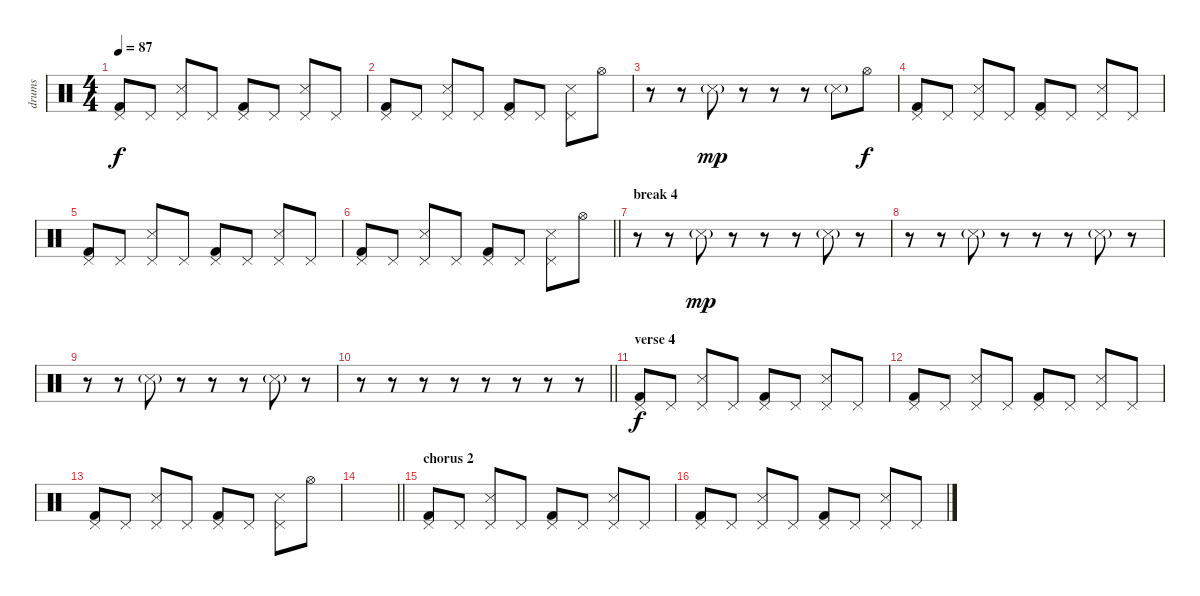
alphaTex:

\track ("drums" "drums") {instrument percussion}
\staff {score}
\articulation defaults
\ts (4 4)
\tempo 87
\clef neutral
\ks c
("Kick (hit) 2" "Pedal Hi-Hat (hit)").8{dy f} "Pedal Hi-Hat (hit)".8 ("Snare (side stick) 3" "Pedal Hi-Hat (hit)").8 "Pedal Hi-Hat (hit)".8 ("Kick (hit) 2" "Pedal Hi-Hat (hit)").8 "Pedal Hi-Hat (hit)".8 ("Snare (side stick) 3" "Pedal Hi-Hat (hit)").8 "Pedal Hi-Hat (hit)".8 |
("Kick (hit) 2" "Pedal Hi-Hat (hit)").8 "Pedal Hi-Hat (hit)".8 ("Snare (side stick) 3" "Pedal Hi-Hat (hit)").8 "Pedal Hi-Hat (hit)".8 ("Kick (hit) 2" "Pedal Hi-Hat (hit)").8 "Pedal Hi-Hat (hit)".8 ("Snare (side stick) 3" "Pedal Hi-Hat (hit)").8 "Hi-Hat (open)".8 |
r.8 r.8 "Snare (side stick) 3"{g}.8{dy mp} r.8 r.8 r.8 "Snare (side stick) 3"{g}.8 "Hi-Hat (open)".8{dy f} |
("Kick (hit) 2" "Pedal Hi-Hat (hit)").8 "Pedal Hi-Hat (hit)".8 ("Snare (side stick) 3" "Pedal Hi-Hat (hit)").8 "Pedal Hi-Hat (hit)".8 ("Kick (hit) 2" "Pedal Hi-Hat (hit)").8 "Pedal Hi-Hat (hit)".8 ("Snare (side stick) 3" "Pedal Hi-Hat (hit)").8 "Pedal Hi-Hat (hit)".8 |
("Kick (hit) 2" "Pedal Hi-Hat (hit)").8 "Pedal Hi-Hat (hit)".8 ("Snare (side stick) 3" "Pedal Hi-Hat (hit)").8 "Pedal Hi-Hat (hit)".8 ("Kick (hit) 2" "Pedal Hi-Hat (hit)").8 "Pedal Hi-Hat (hit)".8 ("Snare (side stick) 3" "Pedal Hi-Hat (hit)").8 "Pedal Hi-Hat (hit)".8 |
\barLineRight lightlight
("Kick (hit) 2" "Pedal Hi-Hat (hit)").8 "Pedal Hi-Hat (hit)".8 ("Snare (side stick) 3" "Pedal Hi-Hat (hit)").8 "Pedal Hi-Hat (hit)".8 ("Kick (hit) 2" "Pedal Hi-Hat (hit)").8 "Pedal Hi-Hat (hit)".8 ("Snare (side stick) 3" "Pedal Hi-Hat (hit)").8 "Hi-Hat (open)".8 |
\section ("" "break 4")
r.8{volume 6} r.8 "Snare (side stick) 3"{g}.8{dy mp} r.8 r.8 r.8 "Snare (side stick) 3"{g}.8 r.8 |
r.8 r.8 "Snare (side stick) 3"{g}.8 r.8 r.8 r.8 "Snare (side stick) 3"{g}.8 r.8 |
r.8 r.8 "Snare (side stick) 3"{g}.8 r.8 r.8 r.8 "Snare (side stick) 3"{g}.8 r.8 |
\barLineRight lightlight
r.8 r.8 r.8 r.8 r.8 r.8 r.8{volume 16} r.8 |
\section ("" "verse 4")
("Kick (hit) 2" "Pedal Hi-Hat (hit)").8{dy f} "Pedal Hi-Hat (hit)".8 ("Snare (side stick) 3" "Pedal Hi-Hat (hit)").8 "Pedal Hi-Hat (hit)".8 ("Kick (hit) 2" "Pedal Hi-Hat (hit)").8 "Pedal Hi-Hat (hit)".8 ("Snare (side stick) 3" "Pedal Hi-Hat (hit)").8 "Pedal Hi-Hat (hit)".8 |
("Kick (hit) 2" "Pedal Hi-Hat (hit)").8 "Pedal Hi-Hat (hit)".8 ("Snare (side stick) 3" "Pedal Hi-Hat (hit)").8 "Pedal Hi-Hat (hit)".8 ("Kick (hit) 2" "Pedal Hi-Hat (hit)").8 "Pedal Hi-Hat (hit)".8 ("Snare (side stick) 3" "Pedal Hi-Hat (hit)").8 "Pedal Hi-Hat (hit)".8 |
("Kick (hit) 2" "Pedal Hi-Hat (hit)").8 "Pedal Hi-Hat (hit)".8 ("Snare (side stick) 3" "Pedal Hi-Hat (hit)").8 "Pedal Hi-Hat (hit)".8 ("Kick (hit) 2" "Pedal Hi-Hat (hit)").8 "Pedal Hi-Hat (hit)".8 ("Snare (side stick) 3" "Pedal Hi-Hat (hit)").8 "Hi-Hat (open)".8 |
\barLineRight lightlight
|
\section ("" "chorus 2")
("Kick (hit) 2" "Pedal Hi-Hat (hit)").8 "Pedal Hi-Hat (hit)".8 ("Snare (side stick) 3" "Pedal Hi-Hat (hit)").8 "Pedal Hi-Hat (hit)".8 ("Kick (hit) 2" "Pedal Hi-Hat (hit)").8 "Pedal Hi-Hat (hit)".8 ("Snare (side stick) 3" "Pedal Hi-Hat (hit)").8 "Pedal Hi-Hat (hit)".8 |
("Kick (hit) 2" "Pedal Hi-Hat (hit)").8 "Pedal Hi-Hat (hit)".8 ("Snare (side stick) 3" "Pedal Hi-Hat (hit)").8 "Pedal Hi-Hat (hit)".8 ("Kick (hit) 2" "Pedal Hi-Hat (hit)").8 "Pedal Hi-Hat (hit)".8 ("Snare (side stick) 3" "Pedal Hi-Hat (hit)").8 "Pedal Hi-Hat (hit)".8
